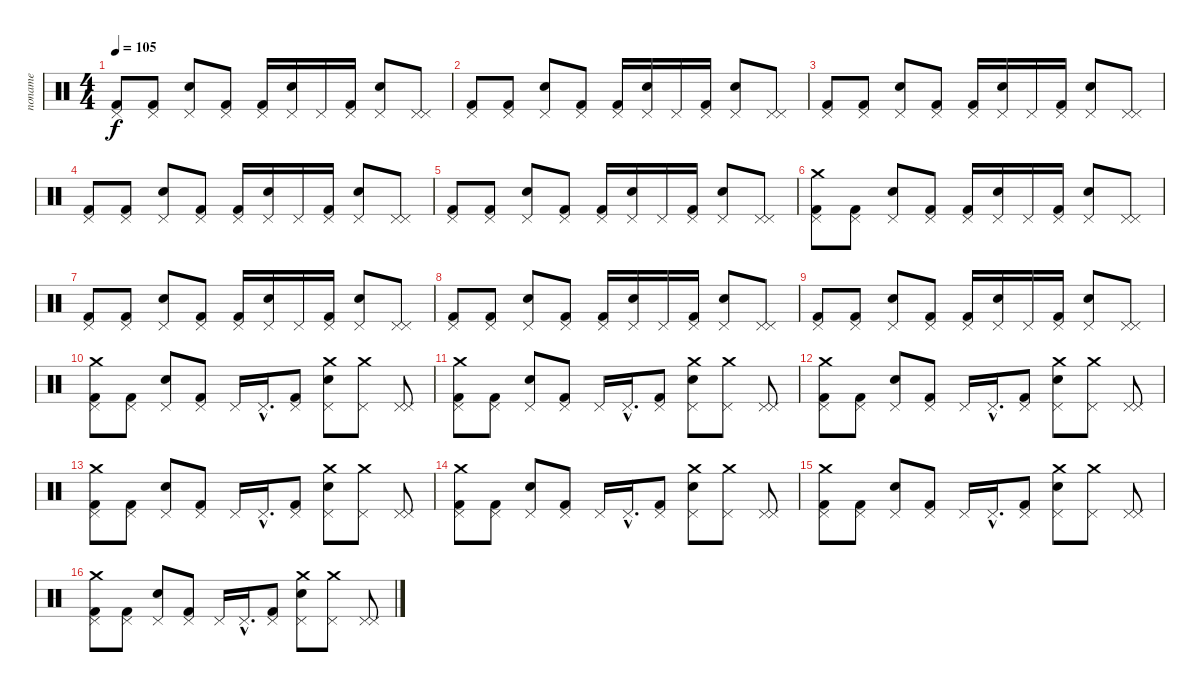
\track ("noname" "noname") {instrument percussion}
\staff {score}
\articulation defaults
\ts (4 4)
\tempo 105
\clef neutral
\ks c
("Pedal Hi-Hat (hit)" "Kick (hit) 2").8{dy f} ("Pedal Hi-Hat (hit)" "Kick (hit) 2").8 ("Pedal Hi-Hat (hit)" "Snare (hit) 2").8 ("Pedal Hi-Hat (hit)" "Kick (hit) 2").8 ("Pedal Hi-Hat (hit)" "Kick (hit) 2").16 ("Pedal Hi-Hat (hit)" "Snare (hit) 2").16 "Pedal Hi-Hat (hit)".16 ("Pedal Hi-Hat (hit)" "Kick (hit) 2").16 ("Pedal Hi-Hat (hit)" "Snare (hit) 2").8 ("Pedal Hi-Hat (hit)" "Pedal Hi-Hat (hit)").8 |
("Pedal Hi-Hat (hit)" "Kick (hit) 2").8 ("Pedal Hi-Hat (hit)" "Kick (hit) 2").8 ("Pedal Hi-Hat (hit)" "Snare (hit) 2").8 ("Pedal Hi-Hat (hit)" "Kick (hit) 2").8 ("Pedal Hi-Hat (hit)" "Kick (hit) 2").16 ("Pedal Hi-Hat (hit)" "Snare (hit) 2").16 "Pedal Hi-Hat (hit)".16 ("Pedal Hi-Hat (hit)" "Kick (hit) 2").16 ("Pedal Hi-Hat (hit)" "Snare (hit) 2").8 ("Pedal Hi-Hat (hit)" "Pedal Hi-Hat (hit)").8 |
("Pedal Hi-Hat (hit)" "Kick (hit) 2").8 ("Pedal Hi-Hat (hit)" "Kick (hit) 2").8 ("Pedal Hi-Hat (hit)" "Snare (hit) 2").8 ("Pedal Hi-Hat (hit)" "Kick (hit) 2").8 ("Pedal Hi-Hat (hit)" "Kick (hit) 2").16 ("Pedal Hi-Hat (hit)" "Snare (hit) 2").16 "Pedal Hi-Hat (hit)".16 ("Pedal Hi-Hat (hit)" "Kick (hit) 2").16 ("Pedal Hi-Hat (hit)" "Snare (hit) 2").8 ("Pedal Hi-Hat (hit)" "Pedal Hi-Hat (hit)").8 |
("Pedal Hi-Hat (hit)" "Kick (hit) 2").8 ("Pedal Hi-Hat (hit)" "Kick (hit) 2").8 ("Pedal Hi-Hat (hit)" "Snare (hit) 2").8 ("Pedal Hi-Hat (hit)" "Kick (hit) 2").8 ("Pedal Hi-Hat (hit)" "Kick (hit) 2").16 ("Pedal Hi-Hat (hit)" "Snare (hit) 2").16 "Pedal Hi-Hat (hit)".16 ("Pedal Hi-Hat (hit)" "Kick (hit) 2").16 ("Pedal Hi-Hat (hit)" "Snare (hit) 2").8 ("Pedal Hi-Hat (hit)" "Pedal Hi-Hat (hit)").8 |
("Pedal Hi-Hat (hit)" "Kick (hit) 2").8 ("Pedal Hi-Hat (hit)" "Kick (hit) 2").8 ("Pedal Hi-Hat (hit)" "Snare (hit) 2").8 ("Pedal Hi-Hat (hit)" "Kick (hit) 2").8 ("Pedal Hi-Hat (hit)" "Kick (hit) 2").16 ("Pedal Hi-Hat (hit)" "Snare (hit) 2").16 "Pedal Hi-Hat (hit)".16 ("Pedal Hi-Hat (hit)" "Kick (hit) 2").16 ("Pedal Hi-Hat (hit)" "Snare (hit) 2").8 ("Pedal Hi-Hat (hit)" "Pedal Hi-Hat (hit)").8 |
("Pedal Hi-Hat (hit)" "Crash medium (hit)" "Kick (hit) 2").8 ("Pedal Hi-Hat (hit)" "Kick (hit) 2").8 ("Pedal Hi-Hat (hit)" "Snare (hit) 2").8 ("Pedal Hi-Hat (hit)" "Kick (hit) 2").8 ("Pedal Hi-Hat (hit)" "Kick (hit) 2").16 ("Pedal Hi-Hat (hit)" "Snare (hit) 2").16 "Pedal Hi-Hat (hit)".16 ("Pedal Hi-Hat (hit)" "Kick (hit) 2").16 ("Pedal Hi-Hat (hit)" "Snare (hit) 2").8 ("Pedal Hi-Hat (hit)" "Pedal Hi-Hat (hit)").8 |
("Pedal Hi-Hat (hit)" "Kick (hit) 2").8 ("Pedal Hi-Hat (hit)" "Kick (hit) 2").8 ("Pedal Hi-Hat (hit)" "Snare (hit) 2").8 ("Pedal Hi-Hat (hit)" "Kick (hit) 2").8 ("Pedal Hi-Hat (hit)" "Kick (hit) 2").16 ("Pedal Hi-Hat (hit)" "Snare (hit) 2").16 "Pedal Hi-Hat (hit)".16 ("Pedal Hi-Hat (hit)" "Kick (hit) 2").16 ("Pedal Hi-Hat (hit)" "Snare (hit) 2").8 ("Pedal Hi-Hat (hit)" "Pedal Hi-Hat (hit)").8 |
("Pedal Hi-Hat (hit)" "Kick (hit) 2").8 ("Pedal Hi-Hat (hit)" "Kick (hit) 2").8 ("Pedal Hi-Hat (hit)" "Snare (hit) 2").8 ("Pedal Hi-Hat (hit)" "Kick (hit) 2").8 ("Pedal Hi-Hat (hit)" "Kick (hit) 2").16 ("Pedal Hi-Hat (hit)" "Snare (hit) 2").16 "Pedal Hi-Hat (hit)".16 ("Pedal Hi-Hat (hit)" "Kick (hit) 2").16 ("Pedal Hi-Hat (hit)" "Snare (hit) 2").8 ("Pedal Hi-Hat (hit)" "Pedal Hi-Hat (hit)").8 |
("Pedal Hi-Hat (hit)" "Kick (hit) 2").8 ("Pedal Hi-Hat (hit)" "Kick (hit) 2").8 ("Pedal Hi-Hat (hit)" "Snare (hit) 2").8 ("Pedal Hi-Hat (hit)" "Kick (hit) 2").8 ("Pedal Hi-Hat (hit)" "Kick (hit) 2").16 ("Pedal Hi-Hat (hit)" "Snare (hit) 2").16 "Pedal Hi-Hat (hit)".16 ("Pedal Hi-Hat (hit)" "Kick (hit) 2").16 ("Pedal Hi-Hat (hit)" "Snare (hit) 2").8 ("Pedal Hi-Hat (hit)" "Pedal Hi-Hat (hit)").8 |
("Pedal Hi-Hat (hit)" "Crash medium (hit)" "Kick (hit) 2").8 ("Pedal Hi-Hat (hit)" "Kick (hit) 2").8 ("Pedal Hi-Hat (hit)" "Snare (hit) 2").8 ("Pedal Hi-Hat (hit)" "Kick (hit) 2").8 "Pedal Hi-Hat (hit)".16 "Pedal Hi-Hat (hit)"{hac}.16{d} ("Pedal Hi-Hat (hit)" "Kick (hit) 2").8 ("Pedal Hi-Hat (hit)" "Crash medium (hit)" "Snare (hit) 2").8 ("Pedal Hi-Hat (hit)" "Crash medium (hit)").8 ("Pedal Hi-Hat (hit)" "Pedal Hi-Hat (hit)").8 |
("Pedal Hi-Hat (hit)" "Crash medium (hit)" "Kick (hit) 2").8 ("Pedal Hi-Hat (hit)" "Kick (hit) 2").8 ("Pedal Hi-Hat (hit)" "Snare (hit) 2").8 ("Pedal Hi-Hat (hit)" "Kick (hit) 2").8 "Pedal Hi-Hat (hit)".16 "Pedal Hi-Hat (hit)"{hac}.16{d} ("Pedal Hi-Hat (hit)" "Kick (hit) 2").8 ("Pedal Hi-Hat (hit)" "Crash medium (hit)" "Snare (hit) 2").8 ("Pedal Hi-Hat (hit)" "Crash medium (hit)").8 ("Pedal Hi-Hat (hit)" "Pedal Hi-Hat (hit)").8 |
("Pedal Hi-Hat (hit)" "Crash medium (hit)" "Kick (hit) 2").8 ("Pedal Hi-Hat (hit)" "Kick (hit) 2").8 ("Pedal Hi-Hat (hit)" "Snare (hit) 2").8 ("Pedal Hi-Hat (hit)" "Kick (hit) 2").8 "Pedal Hi-Hat (hit)".16 "Pedal Hi-Hat (hit)"{hac}.16{d} ("Pedal Hi-Hat (hit)" "Kick (hit) 2").8 ("Pedal Hi-Hat (hit)" "Crash medium (hit)" "Snare (hit) 2").8 ("Pedal Hi-Hat (hit)" "Crash medium (hit)").8 ("Pedal Hi-Hat (hit)" "Pedal Hi-Hat (hit)").8 |
("Pedal Hi-Hat (hit)" "Crash medium (hit)" "Kick (hit) 2").8 ("Pedal Hi-Hat (hit)" "Kick (hit) 2").8 ("Pedal Hi-Hat (hit)" "Snare (hit) 2").8 ("Pedal Hi-Hat (hit)" "Kick (hit) 2").8 "Pedal Hi-Hat (hit)".16 "Pedal Hi-Hat (hit)"{hac}.16{d} ("Pedal Hi-Hat (hit)" "Kick (hit) 2").8 ("Pedal Hi-Hat (hit)" "Crash medium (hit)" "Snare (hit) 2").8 ("Pedal Hi-Hat (hit)" "Crash medium (hit)").8 ("Pedal Hi-Hat (hit)" "Pedal Hi-Hat (hit)").8 |
("Pedal Hi-Hat (hit)" "Crash medium (hit)" "Kick (hit) 2").8 ("Pedal Hi-Hat (hit)" "Kick (hit) 2").8 ("Pedal Hi-Hat (hit)" "Snare (hit) 2").8 ("Pedal Hi-Hat (hit)" "Kick (hit) 2").8 "Pedal Hi-Hat (hit)".16 "Pedal Hi-Hat (hit)"{hac}.16{d} ("Pedal Hi-Hat (hit)" "Kick (hit) 2").8 ("Pedal Hi-Hat (hit)" "Crash medium (hit)" "Snare (hit) 2").8 ("Pedal Hi-Hat (hit)" "Crash medium (hit)").8 ("Pedal Hi-Hat (hit)" "Pedal Hi-Hat (hit)").8 |
("Pedal Hi-Hat (hit)" "Crash medium (hit)" "Kick (hit) 2").8 ("Pedal Hi-Hat (hit)" "Kick (hit) 2").8 ("Pedal Hi-Hat (hit)" "Snare (hit) 2").8 ("Pedal Hi-Hat (hit)" "Kick (hit) 2").8 "Pedal Hi-Hat (hit)".16 "Pedal Hi-Hat (hit)"{hac}.16{d} ("Pedal Hi-Hat (hit)" "Kick (hit) 2").8 ("Pedal Hi-Hat (hit)" "Crash medium (hit)" "Snare (hit) 2").8 ("Pedal Hi-Hat (hit)" "Crash medium (hit)").8 ("Pedal Hi-Hat (hit)" "Pedal Hi-Hat (hit)").8 |
("Pedal Hi-Hat (hit)" "Crash medium (hit)" "Kick (hit) 2").8 ("Pedal Hi-Hat (hit)" "Kick (hit) 2").8 ("Pedal Hi-Hat (hit)" "Snare (hit) 2").8 ("Pedal Hi-Hat (hit)" "Kick (hit) 2").8 "Pedal Hi-Hat (hit)".16 "Pedal Hi-Hat (hit)"{hac}.16{d} ("Pedal Hi-Hat (hit)" "Kick (hit) 2").8 ("Pedal Hi-Hat (hit)" "Crash medium (hit)" "Snare (hit) 2").8 ("Pedal Hi-Hat (hit)" "Crash medium (hit)").8 ("Pedal Hi-Hat (hit)" "Pedal Hi-Hat (hit)").8
